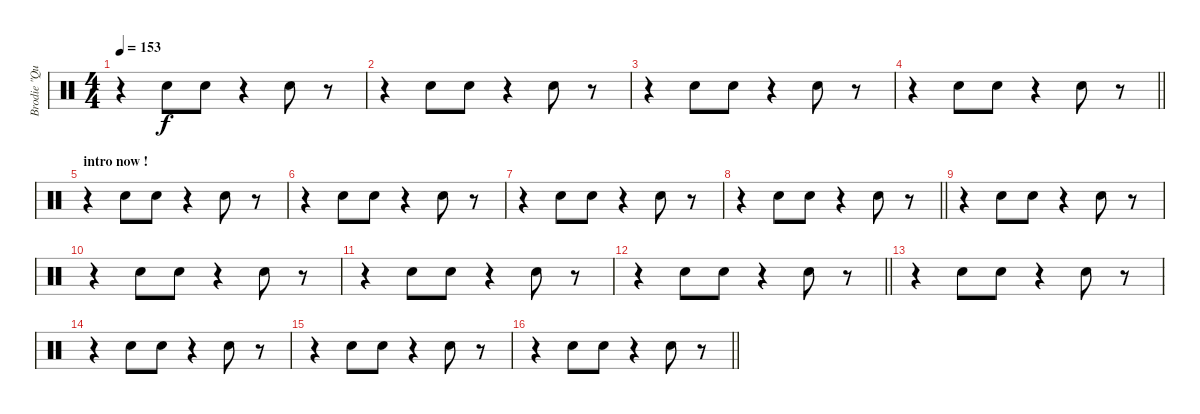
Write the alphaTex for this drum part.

\track ("Brodie \"Queen Be\" Dalle" "Brodie \"Qu") {instrument percussion}
\staff {score}
\articulation defaults
\ts (4 4)
\section ("" "")
\tempo 153
\clef neutral
\ks c
r.4{dy f} "Hand Clap (hit)".8 "Hand Clap (hit)".8 r.4 "Hand Clap (hit)".8 r.8 |
r.4 "Hand Clap (hit)".8 "Hand Clap (hit)".8 r.4 "Hand Clap (hit)".8 r.8 |
r.4 "Hand Clap (hit)".8 "Hand Clap (hit)".8 r.4 "Hand Clap (hit)".8 r.8 |
\barLineRight lightlight
r.4 "Hand Clap (hit)".8 "Hand Clap (hit)".8 r.4 "Hand Clap (hit)".8 r.8 |
\section ("" "intro now !")
r.4 "Hand Clap (hit)".8 "Hand Clap (hit)".8 r.4 "Hand Clap (hit)".8 r.8 |
r.4 "Hand Clap (hit)".8 "Hand Clap (hit)".8 r.4 "Hand Clap (hit)".8 r.8 |
r.4 "Hand Clap (hit)".8 "Hand Clap (hit)".8 r.4 "Hand Clap (hit)".8 r.8 |
\barLineRight lightlight
r.4 "Hand Clap (hit)".8 "Hand Clap (hit)".8 r.4 "Hand Clap (hit)".8 r.8 |
\section ("" "")
r.4 "Hand Clap (hit)".8 "Hand Clap (hit)".8 r.4 "Hand Clap (hit)".8 r.8 |
r.4 "Hand Clap (hit)".8 "Hand Clap (hit)".8 r.4 "Hand Clap (hit)".8 r.8 |
r.4 "Hand Clap (hit)".8 "Hand Clap (hit)".8 r.4 "Hand Clap (hit)".8 r.8 |
\barLineRight lightlight
r.4 "Hand Clap (hit)".8 "Hand Clap (hit)".8 r.4 "Hand Clap (hit)".8 r.8 |
\section ("" "")
r.4 "Hand Clap (hit)".8 "Hand Clap (hit)".8 r.4 "Hand Clap (hit)".8 r.8 |
r.4 "Hand Clap (hit)".8 "Hand Clap (hit)".8 r.4 "Hand Clap (hit)".8 r.8 |
r.4 "Hand Clap (hit)".8 "Hand Clap (hit)".8 r.4 "Hand Clap (hit)".8 r.8 |
\barLineRight lightlight
r.4 "Hand Clap (hit)".8 "Hand Clap (hit)".8 r.4 "Hand Clap (hit)".8 r.8
